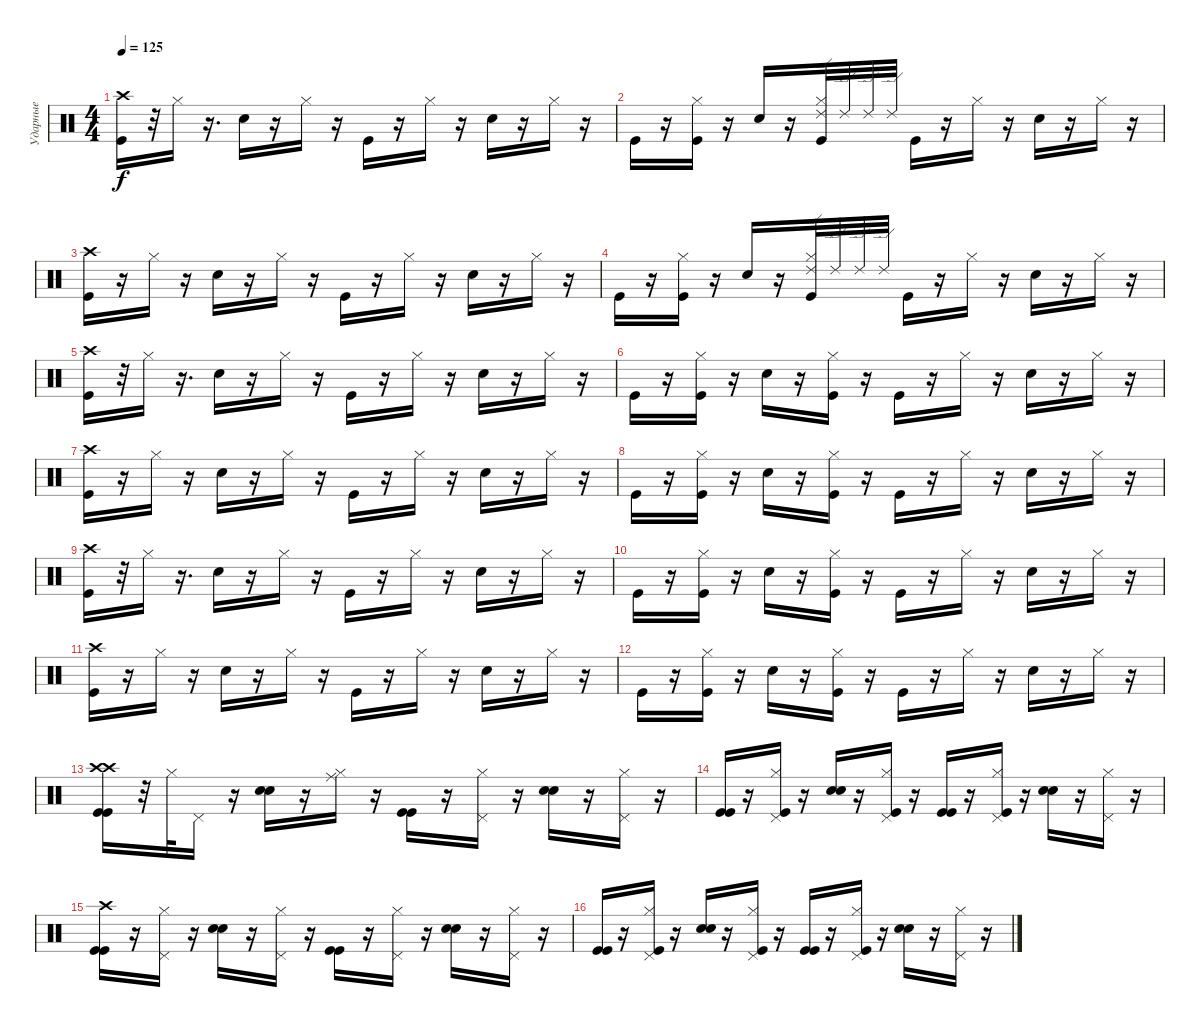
\track ("Ударные" "Ударные") {instrument percussion}
\staff {score}
\articulation defaults
\ts (4 4)
\tempo 125
\clef neutral
\ks c
("Crash high (hit)" "Kick (hit)").16{dy f} r.32 "Hi-Hat (closed)".16 r.16{d} "Electric Snare (hit)".16 r.16 "Hi-Hat (closed)".16 r.16 "Kick (hit)".16 r.16 "Hi-Hat (closed)".16 r.16 "Electric Snare (hit)".16 r.16 "Hi-Hat (closed)".16 r.16 |
"Kick (hit)".16 r.16 ("Hi-Hat (closed)" "Kick (hit)").16 r.16 "Electric Snare (hit)".16 r.16 ("Hi-Hat (closed)" "Kick (hit)" "Ride (edge) 2").32 "Ride (edge) 2".32 "Ride (edge) 2".32 "Ride (edge) 2".32 "Kick (hit)".16 r.16 "Hi-Hat (closed)".16 r.16 "Electric Snare (hit)".16 r.16 "Hi-Hat (closed)".16 r.16 |
("Kick (hit)" "Crash high (hit)").16 r.16 "Hi-Hat (closed)".16 r.16 "Electric Snare (hit)".16 r.16 "Hi-Hat (closed)".16 r.16 "Kick (hit)".16 r.16 "Hi-Hat (closed)".16 r.16 "Electric Snare (hit)".16 r.16 "Hi-Hat (closed)".16 r.16 |
"Kick (hit)".16 r.16 ("Hi-Hat (closed)" "Kick (hit)").16 r.16 "Electric Snare (hit)".16 r.16 ("Hi-Hat (closed)" "Kick (hit)" "Ride (edge) 2").32 "Ride (edge) 2".32 "Ride (edge) 2".32 "Ride (edge) 2".32 "Kick (hit)".16 r.16 "Hi-Hat (closed)".16 r.16 "Electric Snare (hit)".16 r.16 "Hi-Hat (closed)".16 r.16 |
("Crash high (hit)" "Kick (hit)").16 r.32 "Hi-Hat (closed)".16 r.16{d} "Electric Snare (hit)".16 r.16 "Hi-Hat (closed)".16 r.16 "Kick (hit)".16 r.16 "Hi-Hat (closed)".16 r.16 "Electric Snare (hit)".16 r.16 "Hi-Hat (closed)".16 r.16 |
"Kick (hit)".16 r.16 ("Hi-Hat (closed)" "Kick (hit)").16 r.16 "Electric Snare (hit)".16 r.16 ("Hi-Hat (closed)" "Kick (hit)").16 r.16 "Kick (hit)".16 r.16 "Hi-Hat (closed)".16 r.16 "Electric Snare (hit)".16 r.16 "Hi-Hat (closed)".16 r.16 |
("Crash high (hit)" "Kick (hit)").16 r.16 "Hi-Hat (closed)".16 r.16 "Electric Snare (hit)".16 r.16 "Hi-Hat (closed)".16 r.16 "Kick (hit)".16 r.16 "Hi-Hat (closed)".16 r.16 "Electric Snare (hit)".16 r.16 "Hi-Hat (closed)".16 r.16 |
"Kick (hit)".16 r.16 ("Hi-Hat (closed)" "Kick (hit)").16 r.16 "Electric Snare (hit)".16 r.16 ("Hi-Hat (closed)" "Kick (hit)").16 r.16 "Kick (hit)".16 r.16 "Hi-Hat (closed)".16 r.16 "Electric Snare (hit)".16 r.16 "Hi-Hat (closed)".16 r.16 |
("Crash high (hit)" "Kick (hit)").16 r.32 "Hi-Hat (closed)".16 r.16{d} "Electric Snare (hit)".16 r.16 "Hi-Hat (closed)".16 r.16 "Kick (hit)".16 r.16 "Hi-Hat (closed)".16 r.16 "Electric Snare (hit)".16 r.16 "Hi-Hat (closed)".16 r.16 |
"Kick (hit)".16 r.16 ("Hi-Hat (closed)" "Kick (hit)").16 r.16 "Electric Snare (hit)".16 r.16 ("Hi-Hat (closed)" "Kick (hit)").16 r.16 "Kick (hit)".16 r.16 "Hi-Hat (closed)".16 r.16 "Electric Snare (hit)".16 r.16 "Hi-Hat (closed)".16 r.16 |
("Crash high (hit)" "Kick (hit)").16 r.16 "Hi-Hat (closed)".16 r.16 "Electric Snare (hit)".16 r.16 "Hi-Hat (closed)".16 r.16 "Kick (hit)".16 r.16 "Hi-Hat (closed)".16 r.16 "Electric Snare (hit)".16 r.16 "Hi-Hat (closed)".16 r.16 |
"Kick (hit)".16 r.16 ("Hi-Hat (closed)" "Kick (hit)").16 r.16 "Electric Snare (hit)".16 r.16 ("Hi-Hat (closed)" "Kick (hit)").16 r.16 "Kick (hit)".16 r.16 "Hi-Hat (closed)".16 r.16 "Electric Snare (hit)".16 r.16 "Hi-Hat (closed)".16 r.16 |
("Kick (hit)" "Crash high (hit)" "Crash high (hit)" "Kick (hit)").16 r.32 "Hi-Hat (closed)".32 "Pedal Hi-Hat (hit)".16 r.16 ("Electric Snare (hit)" "Electric Snare (hit)").16 r.16 ("Ride (middle)" "Hi-Hat (closed)").16 r.16 ("Kick (hit)" "Kick (hit)").16 r.16 ("Pedal Hi-Hat (hit)" "Hi-Hat (closed)").16 r.16 ("Electric Snare (hit)" "Electric Snare (hit)").16 r.16 ("Pedal Hi-Hat (hit)" "Hi-Hat (closed)").16 r.16 |
("Kick (hit)" "Kick (hit)").16 r.16 ("Pedal Hi-Hat (hit)" "Hi-Hat (closed)" "Kick (hit)").16 r.16 ("Electric Snare (hit)" "Electric Snare (hit)").16 r.16 ("Pedal Hi-Hat (hit)" "Hi-Hat (closed)" "Kick (hit)").16 r.16 ("Kick (hit)" "Kick (hit)").16 r.16 ("Kick (hit)" "Pedal Hi-Hat (hit)" "Hi-Hat (closed)").16 r.16 ("Electric Snare (hit)" "Electric Snare (hit)").16 r.16 ("Pedal Hi-Hat (hit)" "Hi-Hat (closed)").16 r.16 |
("Kick (hit)" "Crash high (hit)" "Kick (hit)").16 r.16 ("Pedal Hi-Hat (hit)" "Hi-Hat (closed)").16 r.16 ("Electric Snare (hit)" "Electric Snare (hit)").16 r.16 ("Pedal Hi-Hat (hit)" "Hi-Hat (closed)").16 r.16 ("Kick (hit)" "Kick (hit)").16 r.16 ("Pedal Hi-Hat (hit)" "Hi-Hat (closed)").16 r.16 ("Electric Snare (hit)" "Electric Snare (hit)").16 r.16 ("Pedal Hi-Hat (hit)" "Hi-Hat (closed)").16 r.16 |
("Kick (hit)" "Kick (hit)").16 r.16 ("Pedal Hi-Hat (hit)" "Hi-Hat (closed)" "Kick (hit)").16 r.16 ("Electric Snare (hit)" "Electric Snare (hit)").16 r.16 ("Pedal Hi-Hat (hit)" "Hi-Hat (closed)" "Kick (hit)").16 r.16 ("Kick (hit)" "Kick (hit)").16 r.16 ("Kick (hit)" "Pedal Hi-Hat (hit)" "Hi-Hat (closed)").16 r.16 ("Electric Snare (hit)" "Electric Snare (hit)").16 r.16 ("Pedal Hi-Hat (hit)" "Hi-Hat (closed)").16 r.16
